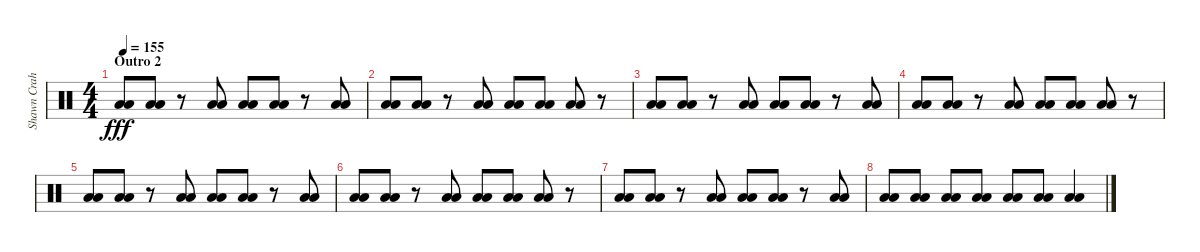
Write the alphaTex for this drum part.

\track ("Shawn Crahan" "Shawn Crah") {instrument percussion}
\staff {score}
\articulation defaults
\ts (4 4)
\section ("" "Outro 2")
\tempo 155
\clef neutral
\ks c
("Low Floor Tom (hit)" "Low Floor Tom (hit)").8{dy fff} ("Low Floor Tom (hit)" "Low Floor Tom (hit)").8 r.8 ("Low Floor Tom (hit)" "Low Floor Tom (hit)").8 ("Low Floor Tom (hit)" "Low Floor Tom (hit)").8 ("Low Floor Tom (hit)" "Low Floor Tom (hit)").8 r.8 ("Low Floor Tom (hit)" "Low Floor Tom (hit)").8 |
("Low Floor Tom (hit)" "Low Floor Tom (hit)").8 ("Low Floor Tom (hit)" "Low Floor Tom (hit)").8 r.8 ("Low Floor Tom (hit)" "Low Floor Tom (hit)").8 ("Low Floor Tom (hit)" "Low Floor Tom (hit)").8 ("Low Floor Tom (hit)" "Low Floor Tom (hit)").8 ("Low Floor Tom (hit)" "Low Floor Tom (hit)").8 r.8 |
("Low Floor Tom (hit)" "Low Floor Tom (hit)").8 ("Low Floor Tom (hit)" "Low Floor Tom (hit)").8 r.8 ("Low Floor Tom (hit)" "Low Floor Tom (hit)").8 ("Low Floor Tom (hit)" "Low Floor Tom (hit)").8 ("Low Floor Tom (hit)" "Low Floor Tom (hit)").8 r.8 ("Low Floor Tom (hit)" "Low Floor Tom (hit)").8 |
("Low Floor Tom (hit)" "Low Floor Tom (hit)").8 ("Low Floor Tom (hit)" "Low Floor Tom (hit)").8 r.8 ("Low Floor Tom (hit)" "Low Floor Tom (hit)").8 ("Low Floor Tom (hit)" "Low Floor Tom (hit)").8 ("Low Floor Tom (hit)" "Low Floor Tom (hit)").8 ("Low Floor Tom (hit)" "Low Floor Tom (hit)").8 r.8 |
("Low Floor Tom (hit)" "Low Floor Tom (hit)").8 ("Low Floor Tom (hit)" "Low Floor Tom (hit)").8 r.8 ("Low Floor Tom (hit)" "Low Floor Tom (hit)").8 ("Low Floor Tom (hit)" "Low Floor Tom (hit)").8 ("Low Floor Tom (hit)" "Low Floor Tom (hit)").8 r.8 ("Low Floor Tom (hit)" "Low Floor Tom (hit)").8 |
("Low Floor Tom (hit)" "Low Floor Tom (hit)").8 ("Low Floor Tom (hit)" "Low Floor Tom (hit)").8 r.8 ("Low Floor Tom (hit)" "Low Floor Tom (hit)").8 ("Low Floor Tom (hit)" "Low Floor Tom (hit)").8 ("Low Floor Tom (hit)" "Low Floor Tom (hit)").8 ("Low Floor Tom (hit)" "Low Floor Tom (hit)").8 r.8 |
("Low Floor Tom (hit)" "Low Floor Tom (hit)").8 ("Low Floor Tom (hit)" "Low Floor Tom (hit)").8 r.8 ("Low Floor Tom (hit)" "Low Floor Tom (hit)").8 ("Low Floor Tom (hit)" "Low Floor Tom (hit)").8 ("Low Floor Tom (hit)" "Low Floor Tom (hit)").8 r.8 ("Low Floor Tom (hit)" "Low Floor Tom (hit)").8 |
("Low Floor Tom (hit)" "Low Floor Tom (hit)").8 ("Low Floor Tom (hit)" "Low Floor Tom (hit)").8 ("Low Floor Tom (hit)" "Low Floor Tom (hit)").8 ("Low Floor Tom (hit)" "Low Floor Tom (hit)").8 ("Low Floor Tom (hit)" "Low Floor Tom (hit)").8 ("Low Floor Tom (hit)" "Low Floor Tom (hit)").8 ("Low Floor Tom (hit)" "Low Floor Tom (hit)").4
